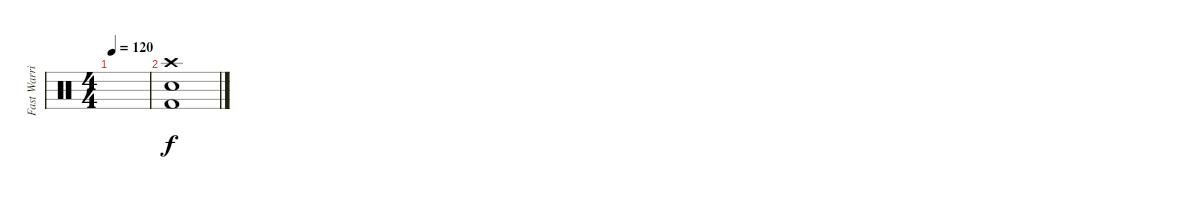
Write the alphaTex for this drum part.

\track ("Fast Warrior" "Fast Warri") {instrument percussion}
\staff {score}
\articulation defaults
\ts (4 4)
\tempo 120
\clef neutral
\ks c
|
("Crash high (hit)" "Electric Snare (hit)" "Kick (hit) 2").1
